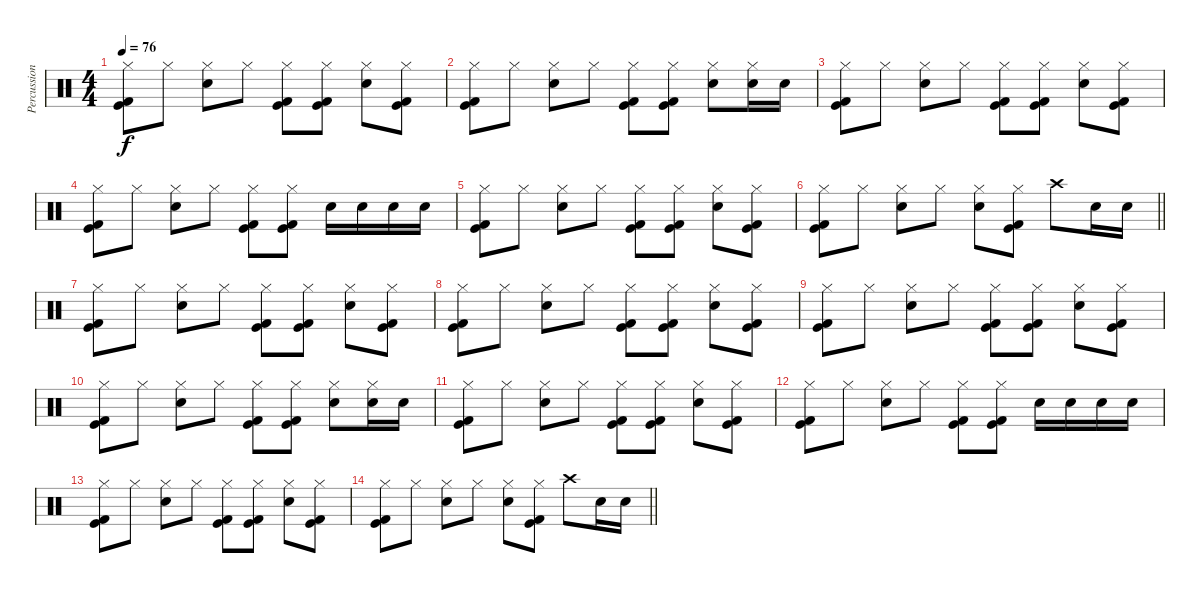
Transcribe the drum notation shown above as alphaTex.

\track ("Percussion" "Percussion") {instrument percussion}
\staff {score}
\articulation defaults
\ts (4 4)
\tempo 76
\clef neutral
\ks c
("Hi-Hat (closed)" "Kick (hit)" "Kick (hit) 2").8{dy f} "Hi-Hat (closed)".8 ("Hi-Hat (closed)" "Electric Snare (hit)").8 "Hi-Hat (closed)".8 ("Hi-Hat (closed)" "Kick (hit)" "Kick (hit) 2").8 ("Hi-Hat (closed)" "Kick (hit)" "Kick (hit) 2").8 ("Hi-Hat (closed)" "Electric Snare (hit)").8 ("Hi-Hat (closed)" "Kick (hit)" "Kick (hit) 2").8 |
("Hi-Hat (closed)" "Kick (hit)" "Kick (hit) 2").8 "Hi-Hat (closed)".8 ("Hi-Hat (closed)" "Electric Snare (hit)").8 "Hi-Hat (closed)".8 ("Hi-Hat (closed)" "Kick (hit)" "Kick (hit) 2").8 ("Hi-Hat (closed)" "Kick (hit)" "Kick (hit) 2").8 ("Hi-Hat (closed)" "Electric Snare (hit)").8 ("Hi-Hat (closed)" "Electric Snare (hit)").16 "Electric Snare (hit)".16 |
("Hi-Hat (closed)" "Kick (hit)" "Kick (hit) 2").8{volume 8} "Hi-Hat (closed)".8 ("Hi-Hat (closed)" "Electric Snare (hit)").8 "Hi-Hat (closed)".8 ("Hi-Hat (closed)" "Kick (hit)" "Kick (hit) 2").8 ("Hi-Hat (closed)" "Kick (hit)" "Kick (hit) 2").8 ("Hi-Hat (closed)" "Electric Snare (hit)").8 ("Hi-Hat (closed)" "Kick (hit)" "Kick (hit) 2").8 |
("Hi-Hat (closed)" "Kick (hit)" "Kick (hit) 2").8 "Hi-Hat (closed)".8 ("Hi-Hat (closed)" "Electric Snare (hit)").8 "Hi-Hat (closed)".8 ("Hi-Hat (closed)" "Kick (hit)" "Kick (hit) 2").8 ("Hi-Hat (closed)" "Kick (hit)" "Kick (hit) 2").8 "Electric Snare (hit)".16 "Electric Snare (hit)".16 "Electric Snare (hit)".16 "Electric Snare (hit)".16 |
("Hi-Hat (closed)" "Kick (hit)" "Kick (hit) 2").8 "Hi-Hat (closed)".8 ("Hi-Hat (closed)" "Electric Snare (hit)").8 "Hi-Hat (closed)".8 ("Hi-Hat (closed)" "Kick (hit)" "Kick (hit) 2").8 ("Hi-Hat (closed)" "Kick (hit)" "Kick (hit) 2").8 ("Hi-Hat (closed)" "Electric Snare (hit)").8 ("Hi-Hat (closed)" "Kick (hit)" "Kick (hit) 2").8 |
\barLineRight lightlight
("Hi-Hat (closed)" "Kick (hit)" "Kick (hit) 2").8 "Hi-Hat (closed)".8 ("Hi-Hat (closed)" "Electric Snare (hit)").8 "Hi-Hat (closed)".8 ("Hi-Hat (closed)" "Electric Snare (hit)").8 ("Hi-Hat (closed)" "Kick (hit)" "Kick (hit) 2").8 "Crash high (hit)".8 "Electric Snare (hit)".16 "Electric Snare (hit)".16 |
\section ("" "")
("Hi-Hat (closed)" "Kick (hit)" "Kick (hit) 2").8{volume 4} "Hi-Hat (closed)".8 ("Hi-Hat (closed)" "Electric Snare (hit)").8 "Hi-Hat (closed)".8 ("Hi-Hat (closed)" "Kick (hit)" "Kick (hit) 2").8 ("Hi-Hat (closed)" "Kick (hit)" "Kick (hit) 2").8 ("Hi-Hat (closed)" "Electric Snare (hit)").8 ("Hi-Hat (closed)" "Kick (hit)" "Kick (hit) 2").8 |
("Hi-Hat (closed)" "Kick (hit)" "Kick (hit) 2").8 "Hi-Hat (closed)".8 ("Hi-Hat (closed)" "Electric Snare (hit)").8 "Hi-Hat (closed)".8 ("Hi-Hat (closed)" "Kick (hit)" "Kick (hit) 2").8 ("Hi-Hat (closed)" "Kick (hit)" "Kick (hit) 2").8 ("Hi-Hat (closed)" "Electric Snare (hit)").8 ("Hi-Hat (closed)" "Kick (hit)" "Kick (hit) 2").8 |
("Hi-Hat (closed)" "Kick (hit)" "Kick (hit) 2").8 "Hi-Hat (closed)".8 ("Hi-Hat (closed)" "Electric Snare (hit)").8 "Hi-Hat (closed)".8 ("Hi-Hat (closed)" "Kick (hit)" "Kick (hit) 2").8 ("Hi-Hat (closed)" "Kick (hit)" "Kick (hit) 2").8 ("Hi-Hat (closed)" "Electric Snare (hit)").8 ("Hi-Hat (closed)" "Kick (hit)" "Kick (hit) 2").8 |
("Hi-Hat (closed)" "Kick (hit)" "Kick (hit) 2").8 "Hi-Hat (closed)".8 ("Hi-Hat (closed)" "Electric Snare (hit)").8 "Hi-Hat (closed)".8 ("Hi-Hat (closed)" "Kick (hit)" "Kick (hit) 2").8 ("Hi-Hat (closed)" "Kick (hit)" "Kick (hit) 2").8 ("Hi-Hat (closed)" "Electric Snare (hit)").8 ("Hi-Hat (closed)" "Electric Snare (hit)").16 "Electric Snare (hit)".16 |
("Hi-Hat (closed)" "Kick (hit)" "Kick (hit) 2").8{volume 0} "Hi-Hat (closed)".8 ("Hi-Hat (closed)" "Electric Snare (hit)").8 "Hi-Hat (closed)".8 ("Hi-Hat (closed)" "Kick (hit)" "Kick (hit) 2").8 ("Hi-Hat (closed)" "Kick (hit)" "Kick (hit) 2").8 ("Hi-Hat (closed)" "Electric Snare (hit)").8 ("Hi-Hat (closed)" "Kick (hit)" "Kick (hit) 2").8 |
("Hi-Hat (closed)" "Kick (hit)" "Kick (hit) 2").8 "Hi-Hat (closed)".8 ("Hi-Hat (closed)" "Electric Snare (hit)").8 "Hi-Hat (closed)".8 ("Hi-Hat (closed)" "Kick (hit)" "Kick (hit) 2").8 ("Hi-Hat (closed)" "Kick (hit)" "Kick (hit) 2").8 "Electric Snare (hit)".16 "Electric Snare (hit)".16 "Electric Snare (hit)".16 "Electric Snare (hit)".16 |
("Hi-Hat (closed)" "Kick (hit)" "Kick (hit) 2").8 "Hi-Hat (closed)".8 ("Hi-Hat (closed)" "Electric Snare (hit)").8 "Hi-Hat (closed)".8 ("Hi-Hat (closed)" "Kick (hit)" "Kick (hit) 2").8 ("Hi-Hat (closed)" "Kick (hit)" "Kick (hit) 2").8 ("Hi-Hat (closed)" "Electric Snare (hit)").8 ("Hi-Hat (closed)" "Kick (hit)" "Kick (hit) 2").8 |
\barLineRight lightlight
("Hi-Hat (closed)" "Kick (hit)" "Kick (hit) 2").8 "Hi-Hat (closed)".8 ("Hi-Hat (closed)" "Electric Snare (hit)").8 "Hi-Hat (closed)".8 ("Hi-Hat (closed)" "Electric Snare (hit)").8 ("Hi-Hat (closed)" "Kick (hit)" "Kick (hit) 2").8 "Crash high (hit)".8 "Electric Snare (hit)".16 "Electric Snare (hit)".16
